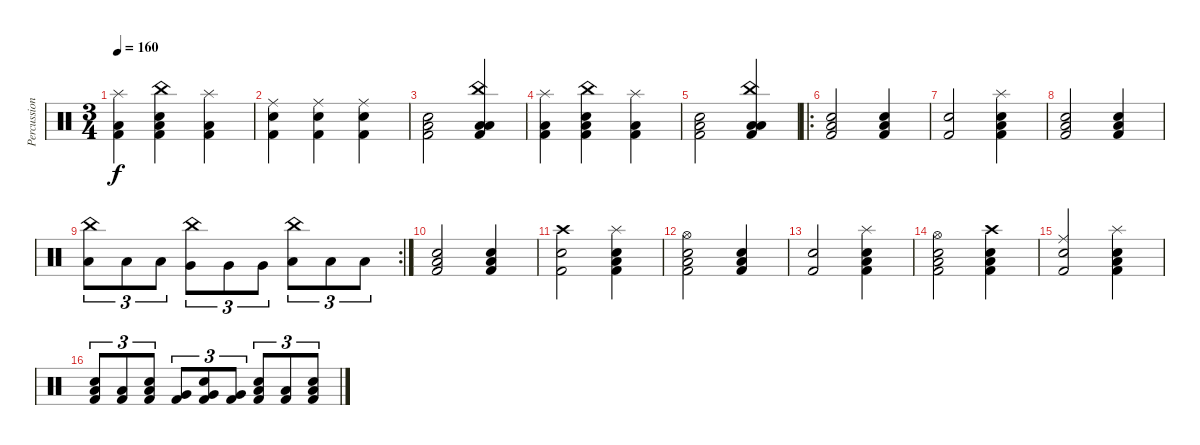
\track ("Percussion" "Percussion") {instrument percussion}
\staff {score}
\articulation defaults
\ts (3 4)
\tempo 160
\clef neutral
\ks c
("Splash (hit)" "Low Floor Tom (hit)" "Kick (hit) 2").4{dy f} ("China (hit)" "Snare (hit) 2" "Low Floor Tom (hit)" "Kick (hit) 2").4 ("Splash (hit)" "Low Floor Tom (hit)" "Kick (hit) 2").4 |
("Ride (middle)" "Snare (hit) 2" "Kick (hit) 2").4 ("Ride (middle)" "Snare (hit) 2" "Kick (hit) 2").4 ("Ride (middle)" "Snare (hit) 2" "Kick (hit) 2").4 |
("Snare (hit) 2" "Low Floor Tom (hit)" "Kick (hit) 2").2 ("China (hit)" "Low Tom (hit)" "Low Floor Tom (hit)" "Kick (hit) 2").4 |
("Splash (hit)" "Low Floor Tom (hit)" "Kick (hit) 2").4 ("China (hit)" "Snare (hit) 2" "Low Floor Tom (hit)" "Kick (hit) 2").4 ("Splash (hit)" "Low Floor Tom (hit)" "Kick (hit) 2").4 |
("Snare (hit) 2" "Low Floor Tom (hit)" "Kick (hit) 2").2 ("China (hit)" "Low Tom (hit)" "Low Floor Tom (hit)" "Kick (hit) 2").4 |
\ro
("Electric Snare (hit)" "Low Tom (hit)" "Kick (hit) 2").2 ("Electric Snare (hit)" "Low Tom (hit)" "Kick (hit) 2").4 |
("Electric Snare (hit)" "Kick (hit) 2").2 ("Splash (hit)" "Electric Snare (hit)" "Low Floor Tom (hit)" "Kick (hit) 2").4 |
("Electric Snare (hit)" "Low Tom (hit)" "Kick (hit) 2").2 ("Electric Snare (hit)" "Low Tom (hit)" "Kick (hit) 2").4 |
\rc 2
("China (hit)" "Low Tom (hit)").8{tu (3 2)} "Low Tom (hit)".8{tu (3 2)} "Low Tom (hit)".8{tu (3 2)} ("China (hit)" "Very Low Tom (hit)").8{tu (3 2)} "Very Low Tom (hit)".8{tu (3 2)} "Very Low Tom (hit)".8{tu (3 2)} ("China (hit)" "Low Floor Tom (hit)").8{tu (3 2)} "Low Floor Tom (hit)".8{tu (3 2)} "Low Floor Tom (hit)".8{tu (3 2)} |
("Electric Snare (hit)" "Low Tom (hit)" "Kick (hit) 2").2 ("Electric Snare (hit)" "Low Tom (hit)" "Kick (hit) 2").4 |
("Crash high (hit)" "Electric Snare (hit)" "Kick (hit) 2").2 ("Splash (hit)" "Electric Snare (hit)" "Low Floor Tom (hit)" "Kick (hit) 2").4 |
("Hi-Hat (open)" "Electric Snare (hit)" "Low Tom (hit)" "Kick (hit) 2").2 ("Electric Snare (hit)" "Low Tom (hit)" "Kick (hit) 2").4 |
("Electric Snare (hit)" "Kick (hit) 2").2 ("Splash (hit)" "Electric Snare (hit)" "Low Floor Tom (hit)" "Kick (hit) 2").4 |
("Hi-Hat (open)" "Electric Snare (hit)" "Low Tom (hit)" "Kick (hit) 2").2 ("Crash high (hit)" "Electric Snare (hit)" "Low Tom (hit)" "Kick (hit) 2").4 |
("Ride (middle)" "Electric Snare (hit)" "Kick (hit) 2").2 ("Splash (hit)" "Electric Snare (hit)" "Low Floor Tom (hit)" "Kick (hit) 2").4 |
("Low Tom (hit)" "Snare (hit) 2" "Kick (hit) 2").8{tu (3 2)} ("Low Tom (hit)" "Kick (hit) 2").8{tu (3 2)} ("Low Tom (hit)" "Snare (hit) 2" "Kick (hit) 2").8{tu (3 2)} ("Very Low Tom (hit)" "Kick (hit) 2").8{tu (3 2)} ("Very Low Tom (hit)" "Snare (hit) 2" "Kick (hit) 2").8{tu (3 2)} ("Very Low Tom (hit)" "Kick (hit) 2").8{tu (3 2)} ("Low Floor Tom (hit)" "Snare (hit) 2" "Kick (hit) 2").8{tu (3 2)} ("Low Floor Tom (hit)" "Kick (hit) 2").8{tu (3 2)} ("Low Floor Tom (hit)" "Snare (hit) 2" "Kick (hit) 2").8{tu (3 2)}
